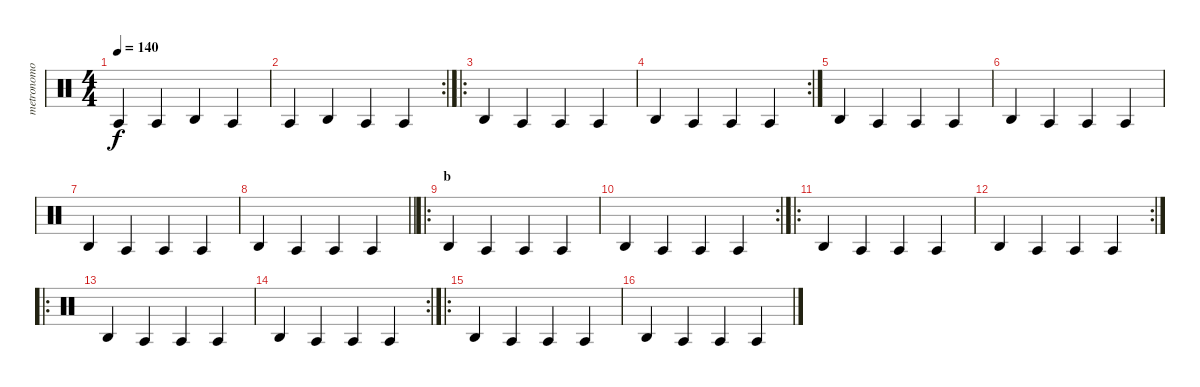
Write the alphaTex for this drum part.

\track ("metronomo" "metronomo") {mute instrument percussion}
\staff {score}
\articulation defaults
\ts (4 4)
\tempo 140
\clef neutral
\ks c "Agogo tow (hit)".4{dy f} "Agogo tow (hit)".4 "Agogo high (hit)".4 "Agogo tow (hit)".4
|
\rc 2 "Agogo tow (hit)".4 "Agogo high (hit)".4 "Agogo tow (hit)".4 "Agogo tow (hit)".4
|
\ro "Agogo high (hit)".4 "Agogo tow (hit)".4 "Agogo tow (hit)".4 "Agogo tow (hit)".4
|
\rc 2 "Agogo high (hit)".4 "Agogo tow (hit)".4 "Agogo tow (hit)".4 "Agogo tow (hit)".4
|
"Agogo high (hit)".4 "Agogo tow (hit)".4 "Agogo tow (hit)".4 "Agogo tow (hit)".4 |
"Agogo high (hit)".4 "Agogo tow (hit)".4 "Agogo tow (hit)".4 "Agogo tow (hit)".4 |
"Agogo high (hit)".4 "Agogo tow (hit)".4 "Agogo tow (hit)".4 "Agogo tow (hit)".4 |
\barLineRight lightlight "Agogo high (hit)".4 "Agogo tow (hit)".4 "Agogo tow (hit)".4 "Agogo tow (hit)".4
|
\ro
\section ("" "b")
"Agogo high (hit)".4 "Agogo tow (hit)".4 "Agogo tow (hit)".4 "Agogo tow (hit)".4 |
\rc 2 "Agogo high (hit)".4 "Agogo tow (hit)".4 "Agogo tow (hit)".4 "Agogo tow (hit)".4
|
\ro "Agogo high (hit)".4 "Agogo tow (hit)".4 "Agogo tow (hit)".4 "Agogo tow (hit)".4
|
\rc 2 "Agogo high (hit)".4 "Agogo tow (hit)".4 "Agogo tow (hit)".4 "Agogo tow (hit)".4
|
\ro "Agogo high (hit)".4 "Agogo tow (hit)".4 "Agogo tow (hit)".4 "Agogo tow (hit)".4
|
\rc 2 "Agogo high (hit)".4 "Agogo tow (hit)".4 "Agogo tow (hit)".4 "Agogo tow (hit)".4
|
\ro "Agogo high (hit)".4 "Agogo tow (hit)".4 "Agogo tow (hit)".4 "Agogo tow (hit)".4
|
"Agogo high (hit)".4 "Agogo tow (hit)".4 "Agogo tow (hit)".4 "Agogo tow (hit)".4
